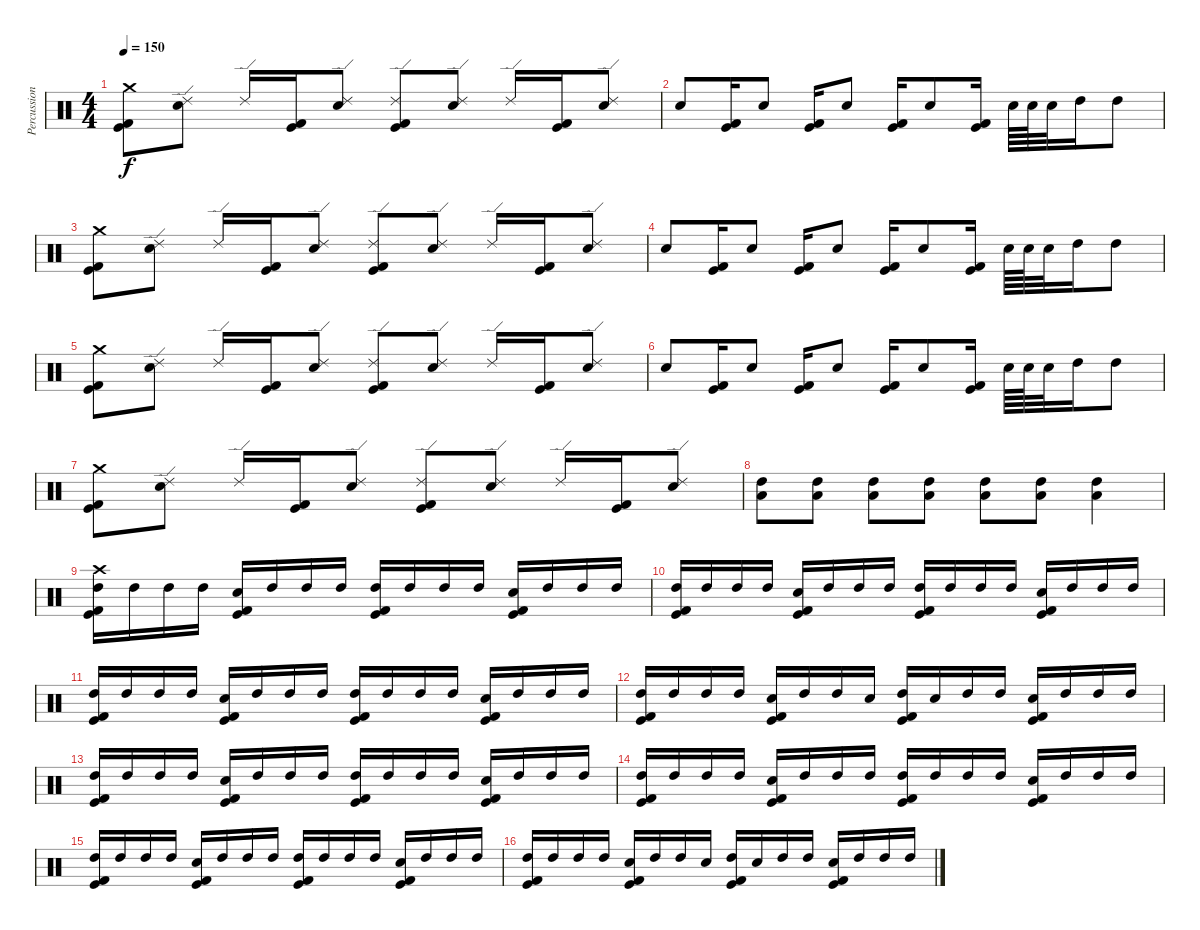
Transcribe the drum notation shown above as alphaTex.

\track ("Percussion" "Percussion") {instrument percussion}
\staff {score}
\articulation defaults
\ts (4 4)
\tempo 150
\clef neutral
\ks c
("Crash medium (hit)" "Kick (hit)" "Kick (hit) 2").8{dy f} ("Ride (edge) 2" "Electric Snare (hit)").8 "Ride (edge) 2".16 ("Kick (hit)" "Kick (hit) 2").16 ("Ride (edge) 2" "Electric Snare (hit)").8 ("Ride (edge) 2" "Kick (hit)" "Kick (hit) 2").8 ("Ride (edge) 2" "Electric Snare (hit)").8 "Ride (edge) 2".16 ("Kick (hit)" "Kick (hit) 2").16 ("Ride (edge) 2" "Electric Snare (hit)").8 |
"Electric Snare (hit)".8 ("Kick (hit)" "Kick (hit) 2").16 "Electric Snare (hit)".8 ("Kick (hit)" "Kick (hit) 2").16 "Electric Snare (hit)".8 ("Kick (hit)" "Kick (hit) 2").16 "Electric Snare (hit)".8 ("Kick (hit)" "Kick (hit) 2").16 "Electric Snare (hit)".64 "Electric Snare (hit)".64 "Electric Snare (hit)".32 "High Tom (hit)".16 "High Tom (hit)".8 |
("Crash medium (hit)" "Kick (hit)" "Kick (hit) 2").8 ("Ride (edge) 2" "Electric Snare (hit)").8 "Ride (edge) 2".16 ("Kick (hit)" "Kick (hit) 2").16 ("Ride (edge) 2" "Electric Snare (hit)").8 ("Ride (edge) 2" "Kick (hit)" "Kick (hit) 2").8 ("Ride (edge) 2" "Electric Snare (hit)").8 "Ride (edge) 2".16 ("Kick (hit)" "Kick (hit) 2").16 ("Ride (edge) 2" "Electric Snare (hit)").8 |
"Electric Snare (hit)".8 ("Kick (hit)" "Kick (hit) 2").16 "Electric Snare (hit)".8 ("Kick (hit)" "Kick (hit) 2").16 "Electric Snare (hit)".8 ("Kick (hit)" "Kick (hit) 2").16 "Electric Snare (hit)".8 ("Kick (hit)" "Kick (hit) 2").16 "Electric Snare (hit)".64 "Electric Snare (hit)".64 "Electric Snare (hit)".32 "High Tom (hit)".16 "High Tom (hit)".8 |
("Crash medium (hit)" "Kick (hit)" "Kick (hit) 2").8 ("Ride (edge) 2" "Electric Snare (hit)").8 "Ride (edge) 2".16 ("Kick (hit)" "Kick (hit) 2").16 ("Ride (edge) 2" "Electric Snare (hit)").8 ("Ride (edge) 2" "Kick (hit)" "Kick (hit) 2").8 ("Ride (edge) 2" "Electric Snare (hit)").8 "Ride (edge) 2".16 ("Kick (hit)" "Kick (hit) 2").16 ("Ride (edge) 2" "Electric Snare (hit)").8 |
"Electric Snare (hit)".8 ("Kick (hit)" "Kick (hit) 2").16 "Electric Snare (hit)".8 ("Kick (hit)" "Kick (hit) 2").16 "Electric Snare (hit)".8 ("Kick (hit)" "Kick (hit) 2").16 "Electric Snare (hit)".8 ("Kick (hit)" "Kick (hit) 2").16 "Electric Snare (hit)".64 "Electric Snare (hit)".64 "Electric Snare (hit)".32 "High Tom (hit)".16 "High Tom (hit)".8 |
("Crash medium (hit)" "Kick (hit)" "Kick (hit) 2").8 ("Ride (edge) 2" "Electric Snare (hit)").8 "Ride (edge) 2".16 ("Kick (hit)" "Kick (hit) 2").16 ("Ride (edge) 2" "Electric Snare (hit)").8 ("Ride (edge) 2" "Kick (hit)" "Kick (hit) 2").8 ("Ride (edge) 2" "Electric Snare (hit)").8 "Ride (edge) 2".16 ("Kick (hit)" "Kick (hit) 2").16 ("Ride (edge) 2" "Electric Snare (hit)").8 |
("Low Tom (hit)" "High Tom (hit)").8 ("Low Tom (hit)" "High Tom (hit)").8 ("Low Tom (hit)" "High Tom (hit)").8 ("Low Tom (hit)" "High Tom (hit)").8 ("Low Tom (hit)" "High Tom (hit)").8 ("Low Tom (hit)" "High Tom (hit)").8 ("Low Tom (hit)" "High Tom (hit)").4 |
("Crash high (hit)" "High Tom (hit)" "Kick (hit)" "Kick (hit) 2").16 "High Tom (hit)".16 "High Tom (hit)".16 "High Tom (hit)".16 ("Electric Snare (hit)" "Kick (hit)" "Kick (hit) 2").16 "High Tom (hit)".16 "High Tom (hit)".16 "High Tom (hit)".16 ("High Tom (hit)" "Kick (hit)" "Kick (hit) 2").16 "High Tom (hit)".16 "High Tom (hit)".16 "High Tom (hit)".16 ("Electric Snare (hit)" "Kick (hit)" "Kick (hit) 2").16 "High Tom (hit)".16 "High Tom (hit)".16 "High Tom (hit)".16 |
("High Tom (hit)" "Kick (hit)" "Kick (hit) 2").16 "High Tom (hit)".16 "High Tom (hit)".16 "High Tom (hit)".16 ("Electric Snare (hit)" "Kick (hit)" "Kick (hit) 2").16 "High Tom (hit)".16 "High Tom (hit)".16 "High Tom (hit)".16 ("High Tom (hit)" "Kick (hit)" "Kick (hit) 2").16 "High Tom (hit)".16 "High Tom (hit)".16 "High Tom (hit)".16 ("Electric Snare (hit)" "Kick (hit)" "Kick (hit) 2").16 "High Tom (hit)".16 "High Tom (hit)".16 "High Tom (hit)".16 |
("High Tom (hit)" "Kick (hit)" "Kick (hit) 2").16 "High Tom (hit)".16 "High Tom (hit)".16 "High Tom (hit)".16 ("Electric Snare (hit)" "Kick (hit)" "Kick (hit) 2").16 "High Tom (hit)".16 "High Tom (hit)".16 "High Tom (hit)".16 ("High Tom (hit)" "Kick (hit)" "Kick (hit) 2").16 "High Tom (hit)".16 "High Tom (hit)".16 "High Tom (hit)".16 ("Electric Snare (hit)" "Kick (hit)" "Kick (hit) 2").16 "High Tom (hit)".16 "High Tom (hit)".16 "High Tom (hit)".16 |
("High Tom (hit)" "Kick (hit)" "Kick (hit) 2").16 "High Tom (hit)".16 "High Tom (hit)".16 "High Tom (hit)".16 ("Electric Snare (hit)" "Kick (hit)" "Kick (hit) 2").16 "High Tom (hit)".16 "High Tom (hit)".16 "Electric Snare (hit)".16 ("High Tom (hit)" "Kick (hit)" "Kick (hit) 2").16 "Electric Snare (hit)".16 "High Tom (hit)".16 "High Tom (hit)".16 ("Electric Snare (hit)" "Kick (hit)" "Kick (hit) 2").16 "High Tom (hit)".16 "High Tom (hit)".16 "High Tom (hit)".16 |
("High Tom (hit)" "Kick (hit)" "Kick (hit) 2").16 "High Tom (hit)".16 "High Tom (hit)".16 "High Tom (hit)".16 ("Electric Snare (hit)" "Kick (hit)" "Kick (hit) 2").16 "High Tom (hit)".16 "High Tom (hit)".16 "High Tom (hit)".16 ("High Tom (hit)" "Kick (hit)" "Kick (hit) 2").16 "High Tom (hit)".16 "High Tom (hit)".16 "High Tom (hit)".16 ("Electric Snare (hit)" "Kick (hit)" "Kick (hit) 2").16 "High Tom (hit)".16 "High Tom (hit)".16 "High Tom (hit)".16 |
("High Tom (hit)" "Kick (hit)" "Kick (hit) 2").16 "High Tom (hit)".16 "High Tom (hit)".16 "High Tom (hit)".16 ("Electric Snare (hit)" "Kick (hit)" "Kick (hit) 2").16 "High Tom (hit)".16 "High Tom (hit)".16 "High Tom (hit)".16 ("High Tom (hit)" "Kick (hit)" "Kick (hit) 2").16 "High Tom (hit)".16 "High Tom (hit)".16 "High Tom (hit)".16 ("Electric Snare (hit)" "Kick (hit)" "Kick (hit) 2").16 "High Tom (hit)".16 "High Tom (hit)".16 "High Tom (hit)".16 |
("High Tom (hit)" "Kick (hit)" "Kick (hit) 2").16 "High Tom (hit)".16 "High Tom (hit)".16 "High Tom (hit)".16 ("Electric Snare (hit)" "Kick (hit)" "Kick (hit) 2").16 "High Tom (hit)".16 "High Tom (hit)".16 "High Tom (hit)".16 ("High Tom (hit)" "Kick (hit)" "Kick (hit) 2").16 "High Tom (hit)".16 "High Tom (hit)".16 "High Tom (hit)".16 ("Electric Snare (hit)" "Kick (hit)" "Kick (hit) 2").16 "High Tom (hit)".16 "High Tom (hit)".16 "High Tom (hit)".16 |
("High Tom (hit)" "Kick (hit)" "Kick (hit) 2").16 "High Tom (hit)".16 "High Tom (hit)".16 "High Tom (hit)".16 ("Electric Snare (hit)" "Kick (hit)" "Kick (hit) 2").16 "High Tom (hit)".16 "High Tom (hit)".16 "Electric Snare (hit)".16 ("High Tom (hit)" "Kick (hit)" "Kick (hit) 2").16 "Electric Snare (hit)".16 "High Tom (hit)".16 "High Tom (hit)".16 ("Electric Snare (hit)" "Kick (hit)" "Kick (hit) 2").16 "High Tom (hit)".16 "High Tom (hit)".16 "High Tom (hit)".16
